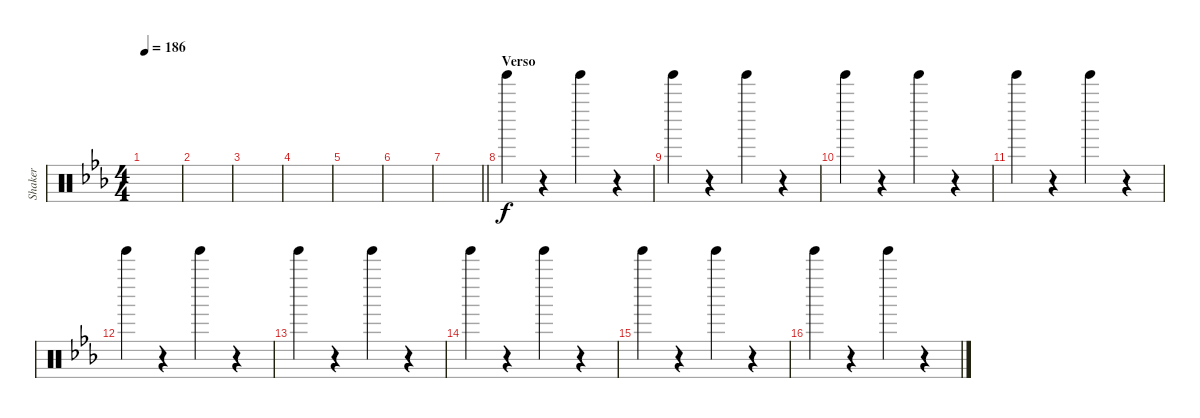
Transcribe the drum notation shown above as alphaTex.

\track ("Shaker" "Shaker") {instrument percussion}
\staff {score}
\articulation defaults
\ts (4 4)
\tempo 186
\clef neutral
\ks eb
|
|
|
|
|
|
\barLineRight lightlight
|
\section ("" "Verso")
"Tinkle Bell (hit)".4 r.4 "Tinkle Bell (hit)".4 r.4 |
"Tinkle Bell (hit)".4 r.4 "Tinkle Bell (hit)".4 r.4 |
"Tinkle Bell (hit)".4 r.4 "Tinkle Bell (hit)".4 r.4 |
"Tinkle Bell (hit)".4 r.4 "Tinkle Bell (hit)".4 r.4 |
"Tinkle Bell (hit)".4 r.4 "Tinkle Bell (hit)".4 r.4 |
"Tinkle Bell (hit)".4 r.4 "Tinkle Bell (hit)".4 r.4 |
"Tinkle Bell (hit)".4 r.4 "Tinkle Bell (hit)".4 r.4 |
"Tinkle Bell (hit)".4 r.4 "Tinkle Bell (hit)".4 r.4 |
"Tinkle Bell (hit)".4 r.4 "Tinkle Bell (hit)".4 r.4
